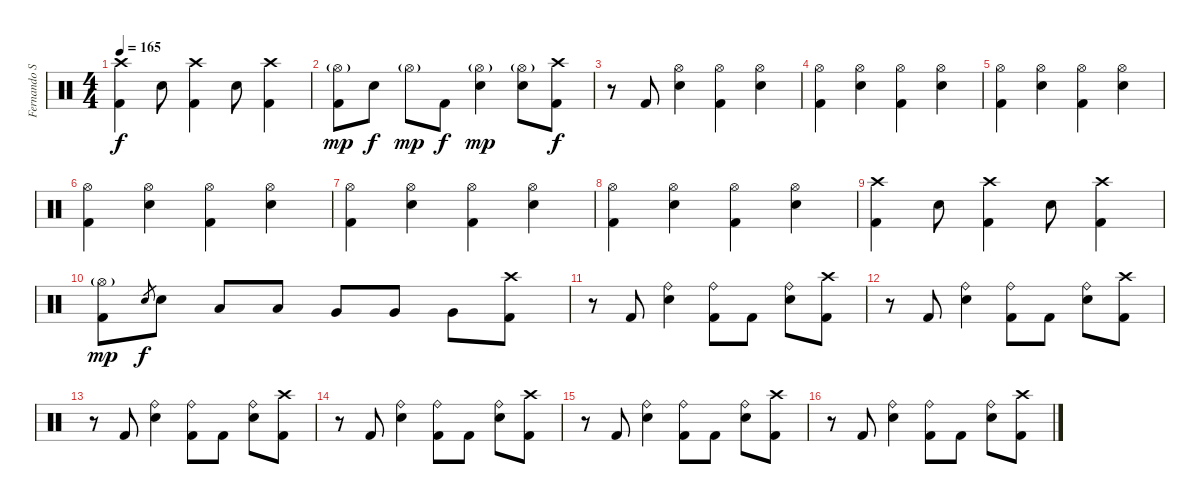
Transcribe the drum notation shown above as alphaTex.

\track ("Fernando Scarcella" "Fernando S") {instrument percussion}
\staff {score}
\articulation defaults
\ts (4 4)
\tempo 165
\clef neutral
\ks c
("Crash high (hit)" "Kick (hit) 2").4{dy f} "Snare (hit) 2".8 ("Crash high (hit)" "Kick (hit) 2").4 "Snare (hit) 2".8 ("Crash high (hit)" "Kick (hit) 2").4 |
("Hi-Hat (open)"{g} "Kick (hit) 2").8{dy mp} "Snare (hit) 2".8{dy f} "Hi-Hat (open)"{g}.8{dy mp} "Kick (hit) 2".8{dy f} ("Hi-Hat (open)"{g} "Snare (hit) 2").4{dy mp} ("Hi-Hat (open)"{g} "Snare (hit) 2").8 ("Crash high (hit)" "Kick (hit) 2").8{dy f} |
r.8 "Kick (hit) 2".8 ("Hi-Hat (open)" "Snare (hit) 2").4 ("Hi-Hat (open)" "Kick (hit) 2").4 ("Hi-Hat (open)" "Snare (hit) 2").4 |
("Hi-Hat (open)" "Kick (hit) 2").4 ("Hi-Hat (open)" "Snare (hit) 2").4 ("Hi-Hat (open)" "Kick (hit) 2").4 ("Hi-Hat (open)" "Snare (hit) 2").4 |
("Hi-Hat (open)" "Kick (hit) 2").4 ("Hi-Hat (open)" "Snare (hit) 2").4 ("Hi-Hat (open)" "Kick (hit) 2").4 ("Hi-Hat (open)" "Snare (hit) 2").4 |
("Hi-Hat (open)" "Kick (hit) 2").4 ("Hi-Hat (open)" "Snare (hit) 2").4 ("Hi-Hat (open)" "Kick (hit) 2").4 ("Hi-Hat (open)" "Snare (hit) 2").4 |
("Hi-Hat (open)" "Kick (hit) 2").4 ("Hi-Hat (open)" "Snare (hit) 2").4 ("Hi-Hat (open)" "Kick (hit) 2").4 ("Hi-Hat (open)" "Snare (hit) 2").4 |
("Hi-Hat (open)" "Kick (hit) 2").4 ("Hi-Hat (open)" "Snare (hit) 2").4 ("Hi-Hat (open)" "Kick (hit) 2").4 ("Hi-Hat (open)" "Snare (hit) 2").4 |
("Crash high (hit)" "Kick (hit) 2").4 "Snare (hit) 2".8 ("Crash high (hit)" "Kick (hit) 2").4 "Snare (hit) 2".8 ("Crash high (hit)" "Kick (hit) 2").4 |
("Hi-Hat (open)"{g} "Kick (hit) 2").8{dy mp} "Snare (hit) 2".8{gr dy f} "Snare (hit) 2".8 "Low Tom (hit)".8 "Low Tom (hit)".8 "Very Low Tom (hit)".8 "Very Low Tom (hit)".8 "Very Low Tom (hit)".8 ("Crash high (hit)" "Kick (hit) 2").8 |
r.8 "Kick (hit) 2".8 ("Ride (bell)" "Snare (hit) 2").4 ("Ride (bell)" "Kick (hit) 2").8 "Kick (hit) 2".8 ("Ride (bell)" "Snare (hit) 2").8 ("Crash high (hit)" "Kick (hit) 2").8 |
r.8 "Kick (hit) 2".8 ("Ride (bell)" "Snare (hit) 2").4 ("Ride (bell)" "Kick (hit) 2").8 "Kick (hit) 2".8 ("Ride (bell)" "Snare (hit) 2").8 ("Crash high (hit)" "Kick (hit) 2").8 |
r.8 "Kick (hit) 2".8 ("Ride (bell)" "Snare (hit) 2").4 ("Ride (bell)" "Kick (hit) 2").8 "Kick (hit) 2".8 ("Ride (bell)" "Snare (hit) 2").8 ("Crash high (hit)" "Kick (hit) 2").8 |
r.8 "Kick (hit) 2".8 ("Ride (bell)" "Snare (hit) 2").4 ("Ride (bell)" "Kick (hit) 2").8 "Kick (hit) 2".8 ("Ride (bell)" "Snare (hit) 2").8 ("Crash high (hit)" "Kick (hit) 2").8 |
r.8 "Kick (hit) 2".8 ("Ride (bell)" "Snare (hit) 2").4 ("Ride (bell)" "Kick (hit) 2").8 "Kick (hit) 2".8 ("Ride (bell)" "Snare (hit) 2").8 ("Crash high (hit)" "Kick (hit) 2").8 |
r.8 "Kick (hit) 2".8 ("Ride (bell)" "Snare (hit) 2").4 ("Ride (bell)" "Kick (hit) 2").8 "Kick (hit) 2".8 ("Ride (bell)" "Snare (hit) 2").8 ("Crash high (hit)" "Kick (hit) 2").8
